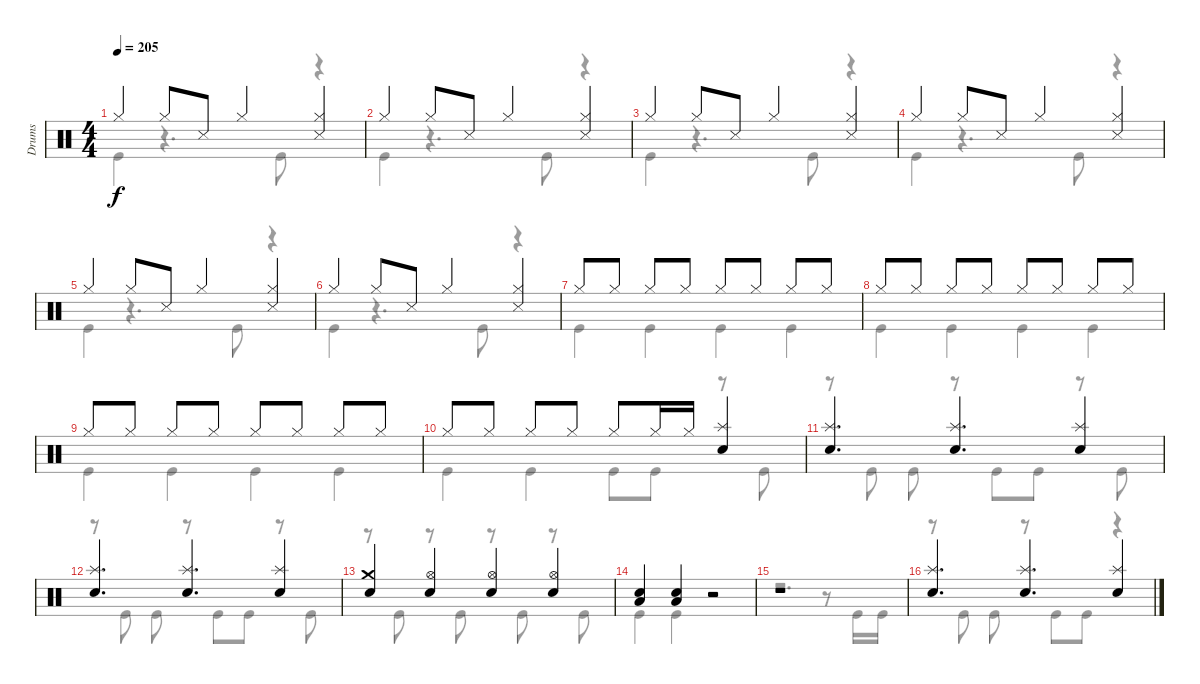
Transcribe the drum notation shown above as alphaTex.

\track ("Drums" "Drums") {instrument percussion}
\staff {score}
\articulation defaults
\voice
\ts (4 4)
\tempo 205
\clef neutral
\ks c "Hi-Hat (closed)".4{dy f} "Hi-Hat (closed)".8 "Snare (side stick) 3".8 "Hi-Hat (closed)".4
("Hi-Hat (closed)" "Snare (side stick) 3").4 |
"Hi-Hat (closed)".4 "Hi-Hat (closed)".8 "Snare (side stick) 3".8 "Hi-Hat (closed)".4 ("Hi-Hat (closed)" "Snare (side stick) 3").4 |
"Hi-Hat (closed)".4 "Hi-Hat (closed)".8 "Snare (side stick) 3".8 "Hi-Hat (closed)".4 ("Hi-Hat (closed)" "Snare (side stick) 3").4 |
"Hi-Hat (closed)".4 "Hi-Hat (closed)".8 "Snare (side stick) 3".8 "Hi-Hat (closed)".4 ("Hi-Hat (closed)" "Snare (side stick) 3").4 |
"Hi-Hat (closed)".4 "Hi-Hat (closed)".8 "Snare (side stick) 3".8 "Hi-Hat (closed)".4 ("Hi-Hat (closed)" "Snare (side stick) 3").4 |
"Hi-Hat (closed)".4 "Hi-Hat (closed)".8 "Snare (side stick) 3".8 "Hi-Hat (closed)".4 ("Hi-Hat (closed)" "Snare (side stick) 3").4 |
"Hi-Hat (closed)".8 "Hi-Hat (closed)".8 "Hi-Hat (closed)".8 "Hi-Hat (closed)".8 "Hi-Hat (closed)".8 "Hi-Hat (closed)".8 "Hi-Hat (closed)".8 "Hi-Hat (closed)".8 |
"Hi-Hat (closed)".8 "Hi-Hat (closed)".8 "Hi-Hat (closed)".8 "Hi-Hat (closed)".8 "Hi-Hat (closed)".8 "Hi-Hat (closed)".8 "Hi-Hat (closed)".8 "Hi-Hat (closed)".8 |
"Hi-Hat (closed)".8 "Hi-Hat (closed)".8 "Hi-Hat (closed)".8 "Hi-Hat (closed)".8 "Hi-Hat (closed)".8 "Hi-Hat (closed)".8 "Hi-Hat (closed)".8 "Hi-Hat (closed)".8 |
"Hi-Hat (closed)".8 "Hi-Hat (closed)".8 "Hi-Hat (closed)".8 "Hi-Hat (closed)".8 "Hi-Hat (closed)".8 "Hi-Hat (closed)".16 "Hi-Hat (closed)".16 ("Splash (hit)" "Snare (hit) 2").4 |
("Splash (hit)" "Snare (hit) 2").4{d} ("Splash (hit)" "Snare (hit) 2").4{d} ("Splash (hit)" "Snare (hit) 2").4 |
("Splash (hit)" "Snare (hit) 2").4{d} ("Splash (hit)" "Snare (hit) 2").4{d} ("Splash (hit)" "Snare (hit) 2").4 |
("Crash medium (hit)" "Snare (hit) 2").4 ("Hi-Hat (open)" "Snare (hit) 2").4 ("Hi-Hat (open)" "Snare (hit) 2").4 ("Hi-Hat (open)" "Snare (hit) 2").4 |
("Low Floor Tom (hit)" "Snare (hit) 2").4 ("Low Floor Tom (hit)" "Snare (hit) 2").4 r.2 |
r.1 |
("Splash (hit)" "Snare (hit) 2").4{d} ("Splash (hit)" "Snare (hit) 2").4{d} ("Splash (hit)" "Snare (hit) 2").4
\voice
\clef neutral
\ottava regular
\simile none
\ks c "Kick (hit)".4{dy f}
r.4{d} "Kick (hit)".8 r.4 |
"Kick (hit)".4 r.4{d} "Kick (hit)".8 r.4 |
"Kick (hit)".4 r.4{d} "Kick (hit)".8 r.4 |
"Kick (hit)".4 r.4{d} "Kick (hit)".8 r.4 |
"Kick (hit)".4 r.4{d} "Kick (hit)".8 r.4 |
"Kick (hit)".4 r.4{d} "Kick (hit)".8 r.4 |
"Kick (hit)".4 "Kick (hit)".4 "Kick (hit)".4 "Kick (hit)".4 |
"Kick (hit)".4 "Kick (hit)".4 "Kick (hit)".4 "Kick (hit)".4 |
"Kick (hit)".4 "Kick (hit)".4 "Kick (hit)".4 "Kick (hit)".4 |
"Kick (hit)".4 "Kick (hit)".4 "Kick (hit)".8 "Kick (hit)".8 r.8 "Kick (hit)".8 |
r.8 "Kick (hit)".8 "Kick (hit)".8 r.8 "Kick (hit)".8 "Kick (hit)".8 r.8 "Kick (hit)".8 |
r.8 "Kick (hit)".8 "Kick (hit)".8 r.8 "Kick (hit)".8 "Kick (hit)".8 r.8 "Kick (hit)".8 |
r.8 "Kick (hit)".8 r.8 "Kick (hit)".8 r.8 "Kick (hit)".8 r.8 "Kick (hit)".8 |
"Kick (hit)".4 "Kick (hit)".4 r.2 |
r.2{d} r.8 "Kick (hit)".16 "Kick (hit)".16 |
r.8 "Kick (hit)".8 "Kick (hit)".8 r.8 "Kick (hit)".8 "Kick (hit)".8 r.4
